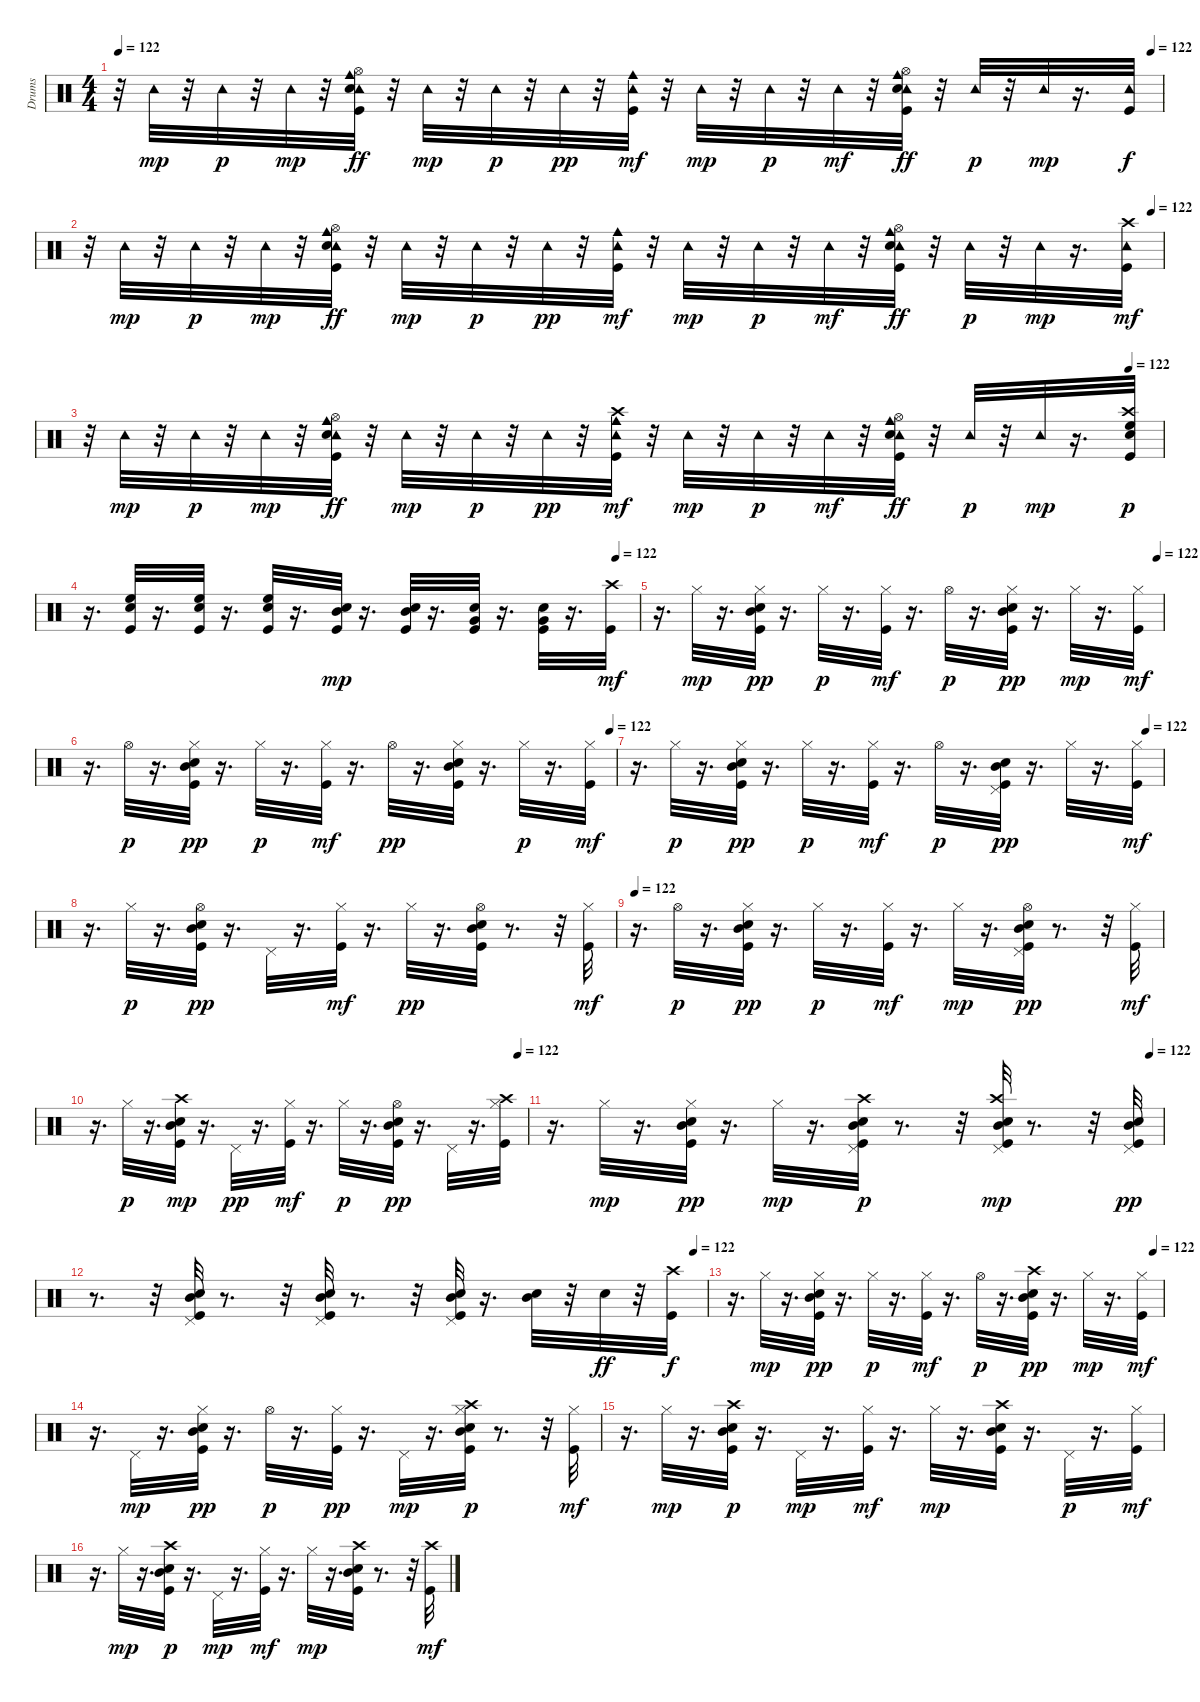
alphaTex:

\track ("Drums" "Drums") {instrument percussion}
\staff {score}
\articulation defaults
\ts (4 4)
\tempo 122
\tempo (122 0.9895833333333334)
\clef neutral
\ks c
r.32{dy f} "Tambourine (hit)".32{dy mp} r.32 "Tambourine (hit)".32{dy p} r.32 "Tambourine (hit)".32{dy mp} r.32 ("Kick (hit)" "Tambourine (hit)" "Hi-Hat (open)" "Snare (hit) 2" "Cowbell medium (hit)").32{dy ff} r.32 "Tambourine (hit)".32{dy mp} r.32 "Tambourine (hit)".32{dy p} r.32 "Tambourine (hit)".32{dy pp} r.32 ("Kick (hit)" "Tambourine (hit)" "Cowbell medium (hit)").32{dy mf} r.32 "Tambourine (hit)".32{dy mp} r.32 "Tambourine (hit)".32{dy p} r.32 "Tambourine (hit)".32{dy mf} r.32 ("Kick (hit)" "Tambourine (hit)" "Hi-Hat (open)" "Snare (hit) 2" "Cowbell medium (hit)").32{dy ff} r.32 "Tambourine (hit)".32{dy p} r.32 "Tambourine (hit)".32{dy mp} r.16{d} ("Kick (hit)" "Tambourine (hit)").32{dy f} |
\tempo (122 0.9895833333333334)
r.32 "Tambourine (hit)".32{dy mp} r.32 "Tambourine (hit)".32{dy p} r.32 "Tambourine (hit)".32{dy mp} r.32 ("Kick (hit)" "Tambourine (hit)" "Hi-Hat (open)" "Snare (hit) 2" "Cowbell medium (hit)").32{dy ff} r.32 "Tambourine (hit)".32{dy mp} r.32 "Tambourine (hit)".32{dy p} r.32 "Tambourine (hit)".32{dy pp} r.32 ("Kick (hit)" "Tambourine (hit)" "Cowbell medium (hit)").32{dy mf} r.32 "Tambourine (hit)".32{dy mp} r.32 "Tambourine (hit)".32{dy p} r.32 "Tambourine (hit)".32{dy mf} r.32 ("Kick (hit)" "Tambourine (hit)" "Hi-Hat (open)" "Snare (hit) 2" "Cowbell medium (hit)").32{dy ff} r.32 "Tambourine (hit)".32{dy p} r.32 "Tambourine (hit)".32{dy mp} r.16{d} ("Kick (hit)" "Crash high (hit)" "Tambourine (hit)").32{dy mf} |
\tempo (122 0.96875)
r.32 "Tambourine (hit)".32{dy mp} r.32 "Tambourine (hit)".32{dy p} r.32 "Tambourine (hit)".32{dy mp} r.32 ("Kick (hit)" "Tambourine (hit)" "Hi-Hat (open)" "Snare (hit) 2" "Cowbell medium (hit)").32{dy ff} r.32 "Tambourine (hit)".32{dy mp} r.32 "Tambourine (hit)".32{dy p} r.32 "Tambourine (hit)".32{dy pp} r.32 ("Kick (hit)" "Tambourine (hit)" "Crash high (hit)" "Cowbell medium (hit)").32{dy mf} r.32 "Tambourine (hit)".32{dy mp} r.32 "Tambourine (hit)".32{dy p} r.32 "Tambourine (hit)".32{dy mf} r.32 ("Kick (hit)" "Tambourine (hit)" "Hi-Hat (open)" "Snare (hit) 2" "Cowbell medium (hit)").32{dy ff} r.32 "Tambourine (hit)".32{dy p} r.32 "Tambourine (hit)".32{dy mp} r.16{d} ("Kick (hit)" "Crash high (hit)" "Snare (hit) 2" "High Floor Tom (hit)").32{dy p} |
\tempo (122 0.9583333333333334)
r.16{d} ("Kick (hit)" "Snare (hit) 2" "High Floor Tom (hit)").32 r.16{d} ("Kick (hit)" "Snare (hit) 2" "High Floor Tom (hit)").32 r.16{d} ("Kick (hit)" "Snare (hit) 2" "High Floor Tom (hit)").32 r.16{d} ("Kick (hit)" "Snare (hit) 2" "Mid Tom (hit)").32{dy mp} r.16{d} ("Kick (hit)" "Snare (hit) 2" "Mid Tom (hit)").32 r.16{d} ("Kick (hit)" "Snare (hit) 2" "Very Low Tom (hit)").32 r.16{d} ("Kick (hit)" "Snare (hit) 2" "Very Low Tom (hit)").32 r.16{d} ("Kick (hit)" "Crash high (hit)").32{dy mf} |
\tempo (122 0.9895833333333334)
r.16{d} "Hi-Hat (closed)".32{dy mp} r.16{d} ("Kick (hit)" "Hi-Hat (closed)" "Snare (hit) 2" "Mid Tom (hit)").32{dy pp} r.16{d} "Hi-Hat (closed)".32{dy p} r.16{d} ("Kick (hit)" "Hi-Hat (closed)").32{dy mf} r.16{d} "Hi-Hat (open)".32{dy p} r.16{d} ("Kick (hit)" "Hi-Hat (closed)" "Snare (hit) 2" "Mid Tom (hit)").32{dy pp} r.16{d} "Hi-Hat (closed)".32{dy mp} r.16{d} ("Kick (hit)" "Hi-Hat (closed)").32{dy mf} |
\tempo (122 0.9895833333333334)
r.16{d} "Hi-Hat (open)".32{dy p} r.16{d} ("Kick (hit)" "Hi-Hat (closed)" "Snare (hit) 2" "Mid Tom (hit)").32{dy pp} r.16{d} "Hi-Hat (closed)".32{dy p} r.16{d} ("Kick (hit)" "Hi-Hat (closed)").32{dy mf} r.16{d} "Hi-Hat (open)".32{dy pp} r.16{d} ("Kick (hit)" "Hi-Hat (closed)" "Snare (hit) 2" "Mid Tom (hit)").32 r.16{d} "Hi-Hat (closed)".32{dy p} r.16{d} ("Kick (hit)" "Hi-Hat (closed)").32{dy mf} |
\tempo (122 0.96875)
r.16{d} "Hi-Hat (closed)".32{dy p} r.16{d} ("Kick (hit)" "Hi-Hat (closed)" "Snare (hit) 2" "Mid Tom (hit)").32{dy pp} r.16{d} "Hi-Hat (closed)".32{dy p} r.16{d} ("Kick (hit)" "Hi-Hat (closed)").32{dy mf} r.16{d} "Hi-Hat (open)".32{dy p} r.16{d} ("Kick (hit)" "Pedal Hi-Hat (hit)" "Snare (hit) 2" "Mid Tom (hit)").32{dy pp} r.16{d} "Hi-Hat (closed)".32 r.16{d} ("Kick (hit)" "Hi-Hat (closed)").32{dy mf} |
r.16{d} "Hi-Hat (closed)".32{dy p} r.16{d} ("Kick (hit)" "Hi-Hat (open)" "Snare (hit) 2" "Mid Tom (hit)").32{dy pp} r.16{d} "Pedal Hi-Hat (hit)".32 r.16{d} ("Kick (hit)" "Hi-Hat (closed)").32{dy mf} r.16{d} "Hi-Hat (closed)".32{dy pp} r.16{d} ("Kick (hit)" "Hi-Hat (open)" "Snare (hit) 2" "Mid Tom (hit)").32 r.8{d} r.32 ("Kick (hit)" "Hi-Hat (closed)").32{dy mf} |
\tempo 122
r.16{d} "Hi-Hat (open)".32{dy p} r.16{d} ("Kick (hit)" "Hi-Hat (closed)" "Snare (hit) 2" "Mid Tom (hit)").32{dy pp} r.16{d} "Hi-Hat (closed)".32{dy p} r.16{d} ("Kick (hit)" "Hi-Hat (closed)").32{dy mf} r.16{d} "Hi-Hat (closed)".32{dy mp} r.16{d} ("Kick (hit)" "Hi-Hat (open)" "Pedal Hi-Hat (hit)" "Snare (hit) 2" "Mid Tom (hit)").32{dy pp} r.8{d} r.32 ("Kick (hit)" "Hi-Hat (closed)").32{dy mf} |
\tempo (122 0.9791666666666666)
r.16{d} "Hi-Hat (closed)".32{dy p} r.16{d} ("Kick (hit)" "Mid Tom (hit)" "Snare (hit) 2" "Crash high (hit)").32{dy mp} r.16{d} "Pedal Hi-Hat (hit)".32{dy pp} r.16{d} ("Kick (hit)" "Hi-Hat (closed)").32{dy mf} r.16{d} "Hi-Hat (closed)".32{dy p} r.16{d} ("Kick (hit)" "Hi-Hat (open)" "Snare (hit) 2" "Mid Tom (hit)").32{dy pp} r.16{d} "Pedal Hi-Hat (hit)".32 r.16{d} ("Kick (hit)" "Hi-Hat (closed)" "Crash high (hit)").32 |
\tempo (122 0.9791666666666666)
r.16{d} "Hi-Hat (closed)".32{dy mp} r.16{d} ("Kick (hit)" "Hi-Hat (closed)" "Snare (hit) 2" "Mid Tom (hit)").32{dy pp} r.16{d} "Hi-Hat (closed)".32{dy mp} r.16{d} ("Kick (hit)" "Mid Tom (hit)" "Pedal Hi-Hat (hit)" "Snare (hit) 2" "Crash high (hit)").32{dy p} r.8{d} r.32 ("Kick (hit)" "Mid Tom (hit)" "Pedal Hi-Hat (hit)" "Snare (hit) 2" "Crash high (hit)").32{dy mp} r.8{d} r.32 ("Kick (hit)" "Pedal Hi-Hat (hit)" "Snare (hit) 2" "Mid Tom (hit)").32{dy pp} |
\tempo (122 0.9791666666666666)
r.8{d} r.32 ("Kick (hit)" "Pedal Hi-Hat (hit)" "Snare (hit) 2" "Mid Tom (hit)").32 r.8{d} r.32 ("Kick (hit)" "Pedal Hi-Hat (hit)" "Snare (hit) 2" "Mid Tom (hit)").32 r.8{d} r.32 ("Kick (hit)" "Pedal Hi-Hat (hit)" "Snare (hit) 2" "Mid Tom (hit)").32 r.16{d} ("Snare (hit) 2" "Mid Tom (hit)").32 r.32 "Snare (hit) 2".32{dy ff} r.32 ("Kick (hit)" "Crash high (hit)").32{dy f} |
\tempo (122 0.9791666666666666)
r.16{d} "Hi-Hat (closed)".32{dy mp} r.16{d} ("Kick (hit)" "Hi-Hat (closed)" "Snare (hit) 2" "Mid Tom (hit)").32{dy pp} r.16{d} "Hi-Hat (closed)".32{dy p} r.16{d} ("Kick (hit)" "Hi-Hat (closed)").32{dy mf} r.16{d} "Hi-Hat (open)".32{dy p} r.16{d} ("Kick (hit)" "Mid Tom (hit)" "Snare (hit) 2" "Crash high (hit)").32{dy pp} r.16{d} "Hi-Hat (closed)".32{dy mp} r.16{d} ("Kick (hit)" "Hi-Hat (closed)").32{dy mf} |
r.16{d} "Pedal Hi-Hat (hit)".32{dy mp} r.16{d} ("Kick (hit)" "Hi-Hat (closed)" "Snare (hit) 2" "Mid Tom (hit)").32{dy pp} r.16{d} "Hi-Hat (open)".32{dy p} r.16{d} ("Kick (hit)" "Hi-Hat (closed)").32{dy pp} r.16{d} "Pedal Hi-Hat (hit)".32{dy mp} r.16{d} ("Kick (hit)" "Mid Tom (hit)" "Hi-Hat (closed)" "Snare (hit) 2" "Crash high (hit)").32{dy p} r.8{d} r.32 ("Kick (hit)" "Hi-Hat (closed)").32{dy mf} |
r.16{d} "Hi-Hat (closed)".32{dy mp} r.16{d} ("Kick (hit)" "Mid Tom (hit)" "Snare (hit) 2" "Crash high (hit)").32{dy p} r.16{d} "Pedal Hi-Hat (hit)".32{dy mp} r.16{d} ("Kick (hit)" "Hi-Hat (closed)").32{dy mf} r.16{d} "Hi-Hat (closed)".32{dy mp} r.16{d} ("Kick (hit)" "Mid Tom (hit)" "Snare (hit) 2" "Crash high (hit)").32 r.16{d} "Pedal Hi-Hat (hit)".32{dy p} r.16{d} ("Kick (hit)" "Hi-Hat (closed)").32{dy mf} |
r.16{d} "Hi-Hat (closed)".32{dy mp} r.16{d} ("Kick (hit)" "Mid Tom (hit)" "Snare (hit) 2" "Crash high (hit)").32{dy p} r.16{d} "Pedal Hi-Hat (hit)".32{dy mp} r.16{d} ("Kick (hit)" "Hi-Hat (closed)").32{dy mf} r.16{d} "Hi-Hat (closed)".32{dy mp} r.16{d} ("Kick (hit)" "Mid Tom (hit)" "Snare (hit) 2" "Crash high (hit)").32 r.8{d} r.32 ("Kick (hit)" "Crash high (hit)").32{dy mf}
